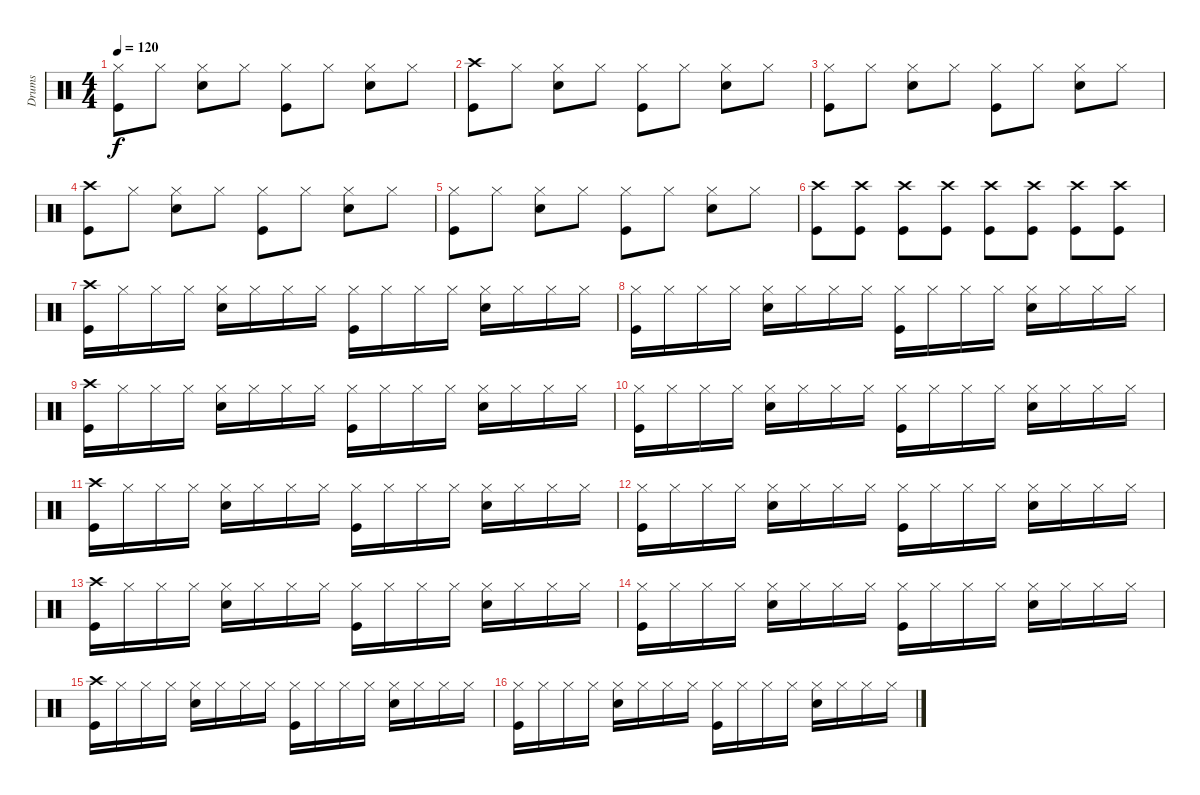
\track ("Drums" "Drums") {instrument percussion}
\staff {score}
\articulation defaults
\ts (4 4)
\tempo 120
\clef neutral
\ks c
("Hi-Hat (closed)" "Kick (hit)").8{dy f} "Hi-Hat (closed)".8 ("Hi-Hat (closed)" "Electric Snare (hit)").8 "Hi-Hat (closed)".8 ("Hi-Hat (closed)" "Kick (hit)").8 "Hi-Hat (closed)".8 ("Hi-Hat (closed)" "Electric Snare (hit)").8 "Hi-Hat (closed)".8 |
("Crash high (hit)" "Kick (hit)").8 "Hi-Hat (closed)".8 ("Hi-Hat (closed)" "Electric Snare (hit)").8 "Hi-Hat (closed)".8 ("Hi-Hat (closed)" "Kick (hit)").8 "Hi-Hat (closed)".8 ("Hi-Hat (closed)" "Electric Snare (hit)").8 "Hi-Hat (closed)".8 |
("Hi-Hat (closed)" "Kick (hit)").8 "Hi-Hat (closed)".8 ("Hi-Hat (closed)" "Electric Snare (hit)").8 "Hi-Hat (closed)".8 ("Hi-Hat (closed)" "Kick (hit)").8 "Hi-Hat (closed)".8 ("Hi-Hat (closed)" "Electric Snare (hit)").8 "Hi-Hat (closed)".8 |
("Crash high (hit)" "Kick (hit)").8 "Hi-Hat (closed)".8 ("Hi-Hat (closed)" "Electric Snare (hit)").8 "Hi-Hat (closed)".8 ("Hi-Hat (closed)" "Kick (hit)").8 "Hi-Hat (closed)".8 ("Hi-Hat (closed)" "Electric Snare (hit)").8 "Hi-Hat (closed)".8 |
("Hi-Hat (closed)" "Kick (hit)").8 "Hi-Hat (closed)".8 ("Hi-Hat (closed)" "Electric Snare (hit)").8 "Hi-Hat (closed)".8 ("Hi-Hat (closed)" "Kick (hit)").8 "Hi-Hat (closed)".8 ("Hi-Hat (closed)" "Electric Snare (hit)").8 "Hi-Hat (closed)".8 |
("Crash high (hit)" "Kick (hit)").8 ("Crash high (hit)" "Kick (hit)").8 ("Crash high (hit)" "Kick (hit)").8 ("Crash high (hit)" "Kick (hit)").8 ("Crash high (hit)" "Kick (hit)").8 ("Crash high (hit)" "Kick (hit)").8 ("Crash high (hit)" "Kick (hit)").8 ("Crash high (hit)" "Kick (hit)").8 |
("Crash high (hit)" "Kick (hit)").16 "Hi-Hat (closed)".16 "Hi-Hat (closed)".16 "Hi-Hat (closed)".16 ("Hi-Hat (closed)" "Electric Snare (hit)").16 "Hi-Hat (closed)".16 "Hi-Hat (closed)".16 "Hi-Hat (closed)".16 ("Hi-Hat (closed)" "Kick (hit)").16 "Hi-Hat (closed)".16 "Hi-Hat (closed)".16 "Hi-Hat (closed)".16 ("Hi-Hat (closed)" "Electric Snare (hit)").16 "Hi-Hat (closed)".16 "Hi-Hat (closed)".16 "Hi-Hat (closed)".16 |
("Hi-Hat (closed)" "Kick (hit)").16 "Hi-Hat (closed)".16 "Hi-Hat (closed)".16 "Hi-Hat (closed)".16 ("Hi-Hat (closed)" "Electric Snare (hit)").16 "Hi-Hat (closed)".16 "Hi-Hat (closed)".16 "Hi-Hat (closed)".16 ("Hi-Hat (closed)" "Kick (hit)").16 "Hi-Hat (closed)".16 "Hi-Hat (closed)".16 "Hi-Hat (closed)".16 ("Hi-Hat (closed)" "Electric Snare (hit)").16 "Hi-Hat (closed)".16 "Hi-Hat (closed)".16 "Hi-Hat (closed)".16 |
("Crash high (hit)" "Kick (hit)").16 "Hi-Hat (closed)".16 "Hi-Hat (closed)".16 "Hi-Hat (closed)".16 ("Hi-Hat (closed)" "Electric Snare (hit)").16 "Hi-Hat (closed)".16 "Hi-Hat (closed)".16 "Hi-Hat (closed)".16 ("Hi-Hat (closed)" "Kick (hit)").16 "Hi-Hat (closed)".16 "Hi-Hat (closed)".16 "Hi-Hat (closed)".16 ("Hi-Hat (closed)" "Electric Snare (hit)").16 "Hi-Hat (closed)".16 "Hi-Hat (closed)".16 "Hi-Hat (closed)".16 |
("Hi-Hat (closed)" "Kick (hit)").16 "Hi-Hat (closed)".16 "Hi-Hat (closed)".16 "Hi-Hat (closed)".16 ("Hi-Hat (closed)" "Electric Snare (hit)").16 "Hi-Hat (closed)".16 "Hi-Hat (closed)".16 "Hi-Hat (closed)".16 ("Hi-Hat (closed)" "Kick (hit)").16 "Hi-Hat (closed)".16 "Hi-Hat (closed)".16 "Hi-Hat (closed)".16 ("Hi-Hat (closed)" "Electric Snare (hit)").16 "Hi-Hat (closed)".16 "Hi-Hat (closed)".16 "Hi-Hat (closed)".16 |
("Crash high (hit)" "Kick (hit)").16 "Hi-Hat (closed)".16 "Hi-Hat (closed)".16 "Hi-Hat (closed)".16 ("Hi-Hat (closed)" "Electric Snare (hit)").16 "Hi-Hat (closed)".16 "Hi-Hat (closed)".16 "Hi-Hat (closed)".16 ("Hi-Hat (closed)" "Kick (hit)").16 "Hi-Hat (closed)".16 "Hi-Hat (closed)".16 "Hi-Hat (closed)".16 ("Hi-Hat (closed)" "Electric Snare (hit)").16 "Hi-Hat (closed)".16 "Hi-Hat (closed)".16 "Hi-Hat (closed)".16 |
("Hi-Hat (closed)" "Kick (hit)").16 "Hi-Hat (closed)".16 "Hi-Hat (closed)".16 "Hi-Hat (closed)".16 ("Hi-Hat (closed)" "Electric Snare (hit)").16 "Hi-Hat (closed)".16 "Hi-Hat (closed)".16 "Hi-Hat (closed)".16 ("Hi-Hat (closed)" "Kick (hit)").16 "Hi-Hat (closed)".16 "Hi-Hat (closed)".16 "Hi-Hat (closed)".16 ("Hi-Hat (closed)" "Electric Snare (hit)").16 "Hi-Hat (closed)".16 "Hi-Hat (closed)".16 "Hi-Hat (closed)".16 |
("Crash high (hit)" "Kick (hit)").16 "Hi-Hat (closed)".16 "Hi-Hat (closed)".16 "Hi-Hat (closed)".16 ("Hi-Hat (closed)" "Electric Snare (hit)").16 "Hi-Hat (closed)".16 "Hi-Hat (closed)".16 "Hi-Hat (closed)".16 ("Hi-Hat (closed)" "Kick (hit)").16 "Hi-Hat (closed)".16 "Hi-Hat (closed)".16 "Hi-Hat (closed)".16 ("Hi-Hat (closed)" "Electric Snare (hit)").16 "Hi-Hat (closed)".16 "Hi-Hat (closed)".16 "Hi-Hat (closed)".16 |
("Hi-Hat (closed)" "Kick (hit)").16 "Hi-Hat (closed)".16 "Hi-Hat (closed)".16 "Hi-Hat (closed)".16 ("Hi-Hat (closed)" "Electric Snare (hit)").16 "Hi-Hat (closed)".16 "Hi-Hat (closed)".16 "Hi-Hat (closed)".16 ("Hi-Hat (closed)" "Kick (hit)").16 "Hi-Hat (closed)".16 "Hi-Hat (closed)".16 "Hi-Hat (closed)".16 ("Hi-Hat (closed)" "Electric Snare (hit)").16 "Hi-Hat (closed)".16 "Hi-Hat (closed)".16 "Hi-Hat (closed)".16 |
("Crash high (hit)" "Kick (hit)").16 "Hi-Hat (closed)".16 "Hi-Hat (closed)".16 "Hi-Hat (closed)".16 ("Hi-Hat (closed)" "Electric Snare (hit)").16 "Hi-Hat (closed)".16 "Hi-Hat (closed)".16 "Hi-Hat (closed)".16 ("Hi-Hat (closed)" "Kick (hit)").16 "Hi-Hat (closed)".16 "Hi-Hat (closed)".16 "Hi-Hat (closed)".16 ("Hi-Hat (closed)" "Electric Snare (hit)").16 "Hi-Hat (closed)".16 "Hi-Hat (closed)".16 "Hi-Hat (closed)".16 |
("Hi-Hat (closed)" "Kick (hit)").16 "Hi-Hat (closed)".16 "Hi-Hat (closed)".16 "Hi-Hat (closed)".16 ("Hi-Hat (closed)" "Electric Snare (hit)").16 "Hi-Hat (closed)".16 "Hi-Hat (closed)".16 "Hi-Hat (closed)".16 ("Hi-Hat (closed)" "Kick (hit)").16 "Hi-Hat (closed)".16 "Hi-Hat (closed)".16 "Hi-Hat (closed)".16 ("Hi-Hat (closed)" "Electric Snare (hit)").16 "Hi-Hat (closed)".16 "Hi-Hat (closed)".16 "Hi-Hat (closed)".16
